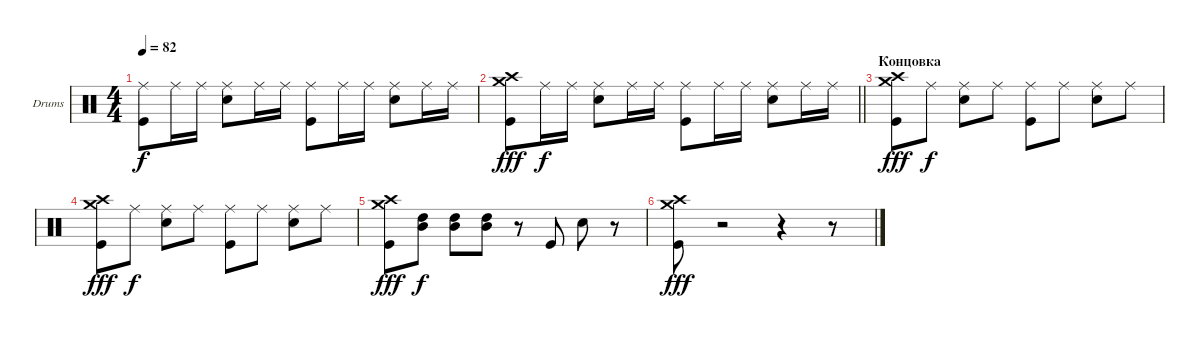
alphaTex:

\bracketExtendMode groupsimilarinstruments
\firstSystemTrackNameOrientation horizontal
\otherSystemsTrackNameOrientation horizontal
\track ("Александр Манякин" "Drums") {instrument percussion}
\staff {score}
\articulation defaults
\ts (4 4)
\tempo 82
\clef neutral
\ks c
("Kick (hit)" "Ride (middle)").8{dy f} "Ride (middle)".16 "Ride (middle)".16 ("Snare (hit) 2" "Ride (middle)").8 "Ride (middle)".16 "Ride (middle)".16 ("Kick (hit)" "Ride (middle)").8 "Ride (middle)".16 "Ride (middle)".16 ("Snare (hit) 2" "Ride (middle)").8 "Ride (middle)".16 "Ride (middle)".16 |
\barLineRight lightlight
("Kick (hit)" "Crash medium (hit)" "Crash high (hit)").8{dy fff} "Ride (middle)".16{dy f} "Ride (middle)".16 ("Snare (hit) 2" "Ride (middle)").8 "Ride (middle)".16 "Ride (middle)".16 ("Kick (hit)" "Ride (middle)").8 "Ride (middle)".16 "Ride (middle)".16 ("Snare (hit) 2" "Ride (middle)").8 "Ride (middle)".16 "Ride (middle)".16 |
\section ("" "Концовка")
("Kick (hit)" "Crash medium (hit)" "Crash high (hit)").8{dy fff} "Ride (middle)".8{dy f} ("Snare (hit) 2" "Ride (middle)").8 "Ride (middle)".8 ("Kick (hit)" "Ride (middle)").8 "Ride (middle)".8 ("Snare (hit) 2" "Ride (middle)").8 "Ride (middle)".8 |
("Kick (hit)" "Crash medium (hit)" "Crash high (hit)").8{dy fff} "Ride (middle)".8{dy f} ("Snare (hit) 2" "Ride (middle)").8 "Ride (middle)".8 ("Kick (hit)" "Ride (middle)").8 "Ride (middle)".8 ("Snare (hit) 2" "Ride (middle)").8 "Ride (middle)".8 |
("Kick (hit)" "Crash medium (hit)" "Crash high (hit)").8{dy fff} ("Mid Tom (hit)" "High Tom (hit)").8{dy f} ("High Tom (hit)" "Mid Tom (hit)").8 ("Mid Tom (hit)" "High Tom (hit)").8 r.8 "Kick (hit)".8 "Snare (hit) 2".8 r.8 |
("Kick (hit)" "Crash high (hit)" "Crash medium (hit)").8{dy fff} r.2 r.4 r.8
